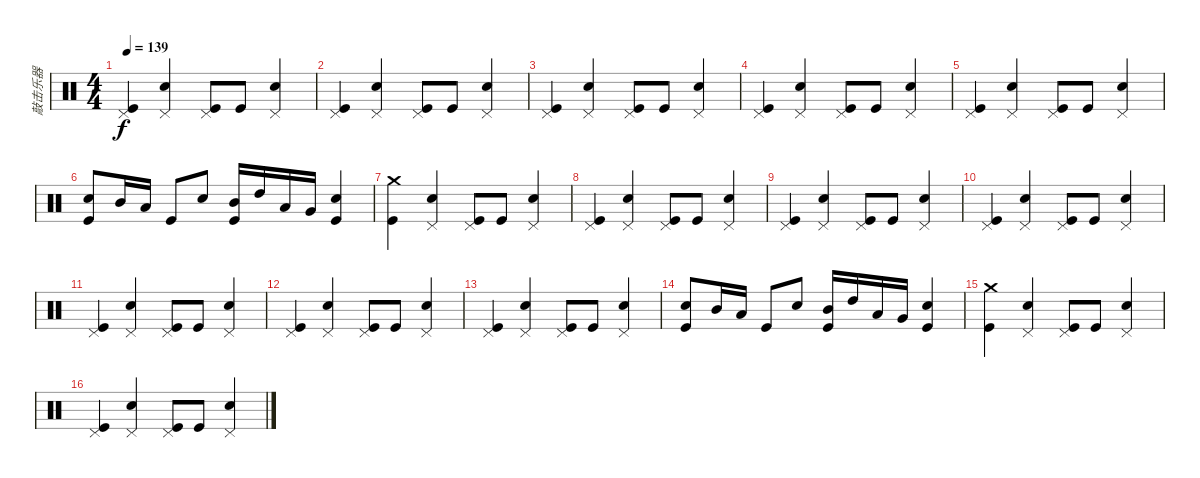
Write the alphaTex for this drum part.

\track ("敲击乐器" "敲击乐器") {instrument percussion}
\staff {score}
\articulation defaults
\ts (4 4)
\tempo 139
\clef neutral
\ks c
("Pedal Hi-Hat (hit)" "Kick (hit)").4{dy f} ("Pedal Hi-Hat (hit)" "Snare (hit) 2").4 ("Pedal Hi-Hat (hit)" "Kick (hit)").8 "Kick (hit)".8 ("Pedal Hi-Hat (hit)" "Snare (hit) 2").4 |
("Pedal Hi-Hat (hit)" "Kick (hit)").4 ("Pedal Hi-Hat (hit)" "Snare (hit) 2").4 ("Pedal Hi-Hat (hit)" "Kick (hit)").8 "Kick (hit)".8 ("Pedal Hi-Hat (hit)" "Snare (hit) 2").4 |
("Pedal Hi-Hat (hit)" "Kick (hit)").4 ("Pedal Hi-Hat (hit)" "Snare (hit) 2").4 ("Pedal Hi-Hat (hit)" "Kick (hit)").8 "Kick (hit)".8 ("Pedal Hi-Hat (hit)" "Snare (hit) 2").4 |
("Pedal Hi-Hat (hit)" "Kick (hit)").4 ("Pedal Hi-Hat (hit)" "Snare (hit) 2").4 ("Pedal Hi-Hat (hit)" "Kick (hit)").8 "Kick (hit)".8 ("Pedal Hi-Hat (hit)" "Snare (hit) 2").4 |
("Pedal Hi-Hat (hit)" "Kick (hit)").4 ("Pedal Hi-Hat (hit)" "Snare (hit) 2").4 ("Pedal Hi-Hat (hit)" "Kick (hit)").8 "Kick (hit)".8 ("Pedal Hi-Hat (hit)" "Snare (hit) 2").4 |
("Snare (hit) 2" "Kick (hit)").8 "Mid Tom (hit)".16 "Low Tom (hit)".16 "Kick (hit)".8 "Snare (hit) 2".8 ("Mid Tom (hit)" "Kick (hit)").16 "High Tom (hit)".16 "Low Tom (hit)".16 "Very Low Tom (hit)".16 ("Snare (hit) 2" "Kick (hit)").4 |
("Crash medium (hit)" "Kick (hit)").4 ("Pedal Hi-Hat (hit)" "Snare (hit) 2").4 ("Pedal Hi-Hat (hit)" "Kick (hit)").8 "Kick (hit)".8 ("Pedal Hi-Hat (hit)" "Snare (hit) 2").4 |
("Pedal Hi-Hat (hit)" "Kick (hit)").4 ("Pedal Hi-Hat (hit)" "Snare (hit) 2").4 ("Pedal Hi-Hat (hit)" "Kick (hit)").8 "Kick (hit)".8 ("Pedal Hi-Hat (hit)" "Snare (hit) 2").4 |
("Pedal Hi-Hat (hit)" "Kick (hit)").4 ("Pedal Hi-Hat (hit)" "Snare (hit) 2").4 ("Pedal Hi-Hat (hit)" "Kick (hit)").8 "Kick (hit)".8 ("Pedal Hi-Hat (hit)" "Snare (hit) 2").4 |
("Pedal Hi-Hat (hit)" "Kick (hit)").4 ("Pedal Hi-Hat (hit)" "Snare (hit) 2").4 ("Pedal Hi-Hat (hit)" "Kick (hit)").8 "Kick (hit)".8 ("Pedal Hi-Hat (hit)" "Snare (hit) 2").4 |
("Pedal Hi-Hat (hit)" "Kick (hit)").4 ("Pedal Hi-Hat (hit)" "Snare (hit) 2").4 ("Pedal Hi-Hat (hit)" "Kick (hit)").8 "Kick (hit)".8 ("Pedal Hi-Hat (hit)" "Snare (hit) 2").4 |
("Pedal Hi-Hat (hit)" "Kick (hit)").4 ("Pedal Hi-Hat (hit)" "Snare (hit) 2").4 ("Pedal Hi-Hat (hit)" "Kick (hit)").8 "Kick (hit)".8 ("Pedal Hi-Hat (hit)" "Snare (hit) 2").4 |
("Pedal Hi-Hat (hit)" "Kick (hit)").4 ("Pedal Hi-Hat (hit)" "Snare (hit) 2").4 ("Pedal Hi-Hat (hit)" "Kick (hit)").8 "Kick (hit)".8 ("Pedal Hi-Hat (hit)" "Snare (hit) 2").4 |
("Snare (hit) 2" "Kick (hit)").8 "Mid Tom (hit)".16 "Low Tom (hit)".16 "Kick (hit)".8 "Snare (hit) 2".8 ("Mid Tom (hit)" "Kick (hit)").16 "High Tom (hit)".16 "Low Tom (hit)".16 "Very Low Tom (hit)".16 ("Snare (hit) 2" "Kick (hit)").4 |
("Crash medium (hit)" "Kick (hit)").4 ("Pedal Hi-Hat (hit)" "Snare (hit) 2").4 ("Pedal Hi-Hat (hit)" "Kick (hit)").8 "Kick (hit)".8 ("Pedal Hi-Hat (hit)" "Snare (hit) 2").4 |
("Pedal Hi-Hat (hit)" "Kick (hit)").4 ("Pedal Hi-Hat (hit)" "Snare (hit) 2").4 ("Pedal Hi-Hat (hit)" "Kick (hit)").8 "Kick (hit)".8 ("Pedal Hi-Hat (hit)" "Snare (hit) 2").4
